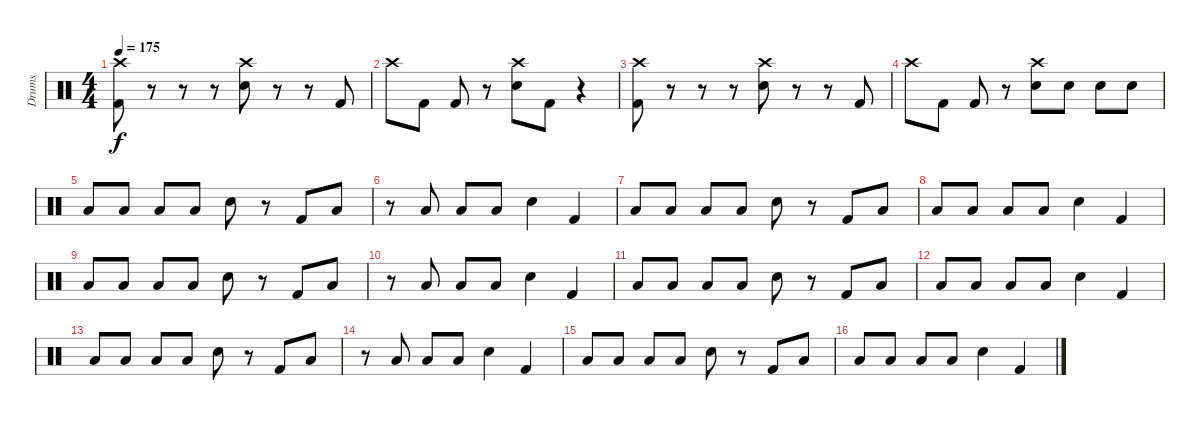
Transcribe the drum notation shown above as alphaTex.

\track ("Drums" "Drums") {instrument percussion}
\staff {score}
\articulation defaults
\ts (4 4)
\tempo 175
\clef neutral
\ks c
("Crash high (hit)" "Kick (hit) 2").8{dy f} r.8 r.8 r.8 ("Crash high (hit)" "Electric Snare (hit)").8 r.8 r.8 "Kick (hit) 2".8 |
"Crash high (hit)".8 "Kick (hit) 2".8 "Kick (hit) 2".8 r.8 ("Crash high (hit)" "Electric Snare (hit)").8 "Kick (hit) 2".8 r.4 |
("Crash high (hit)" "Kick (hit) 2").8 r.8 r.8 r.8 ("Crash high (hit)" "Electric Snare (hit)").8 r.8 r.8 "Kick (hit) 2".8 |
"Crash high (hit)".8 "Kick (hit) 2".8 "Kick (hit) 2".8 r.8 ("Crash high (hit)" "Electric Snare (hit)").8 "Electric Snare (hit)".8 "Electric Snare (hit)".8 "Electric Snare (hit)".8 |
"Low Tom (hit)".8 "Low Tom (hit)".8 "Low Tom (hit)".8 "Low Tom (hit)".8 "Electric Snare (hit)".8 r.8 "Kick (hit) 2".8 "Low Tom (hit)".8 |
r.8 "Low Tom (hit)".8 "Low Tom (hit)".8 "Low Tom (hit)".8 "Electric Snare (hit)".4 "Kick (hit) 2".4 |
"Low Tom (hit)".8 "Low Tom (hit)".8 "Low Tom (hit)".8 "Low Tom (hit)".8 "Electric Snare (hit)".8 r.8 "Kick (hit) 2".8 "Low Tom (hit)".8 |
"Low Tom (hit)".8 "Low Tom (hit)".8 "Low Tom (hit)".8 "Low Tom (hit)".8 "Electric Snare (hit)".4 "Kick (hit) 2".4 |
"Low Tom (hit)".8 "Low Tom (hit)".8 "Low Tom (hit)".8 "Low Tom (hit)".8 "Electric Snare (hit)".8 r.8 "Kick (hit) 2".8 "Low Tom (hit)".8 |
r.8 "Low Tom (hit)".8 "Low Tom (hit)".8 "Low Tom (hit)".8 "Electric Snare (hit)".4 "Kick (hit) 2".4 |
"Low Tom (hit)".8 "Low Tom (hit)".8 "Low Tom (hit)".8 "Low Tom (hit)".8 "Electric Snare (hit)".8 r.8 "Kick (hit) 2".8 "Low Tom (hit)".8 |
"Low Tom (hit)".8 "Low Tom (hit)".8 "Low Tom (hit)".8 "Low Tom (hit)".8 "Electric Snare (hit)".4 "Kick (hit) 2".4 |
"Low Tom (hit)".8 "Low Tom (hit)".8 "Low Tom (hit)".8 "Low Tom (hit)".8 "Electric Snare (hit)".8 r.8 "Kick (hit) 2".8 "Low Tom (hit)".8 |
r.8 "Low Tom (hit)".8 "Low Tom (hit)".8 "Low Tom (hit)".8 "Electric Snare (hit)".4 "Kick (hit) 2".4 |
"Low Tom (hit)".8 "Low Tom (hit)".8 "Low Tom (hit)".8 "Low Tom (hit)".8 "Electric Snare (hit)".8 r.8 "Kick (hit) 2".8 "Low Tom (hit)".8 |
"Low Tom (hit)".8 "Low Tom (hit)".8 "Low Tom (hit)".8 "Low Tom (hit)".8 "Electric Snare (hit)".4 "Kick (hit) 2".4
